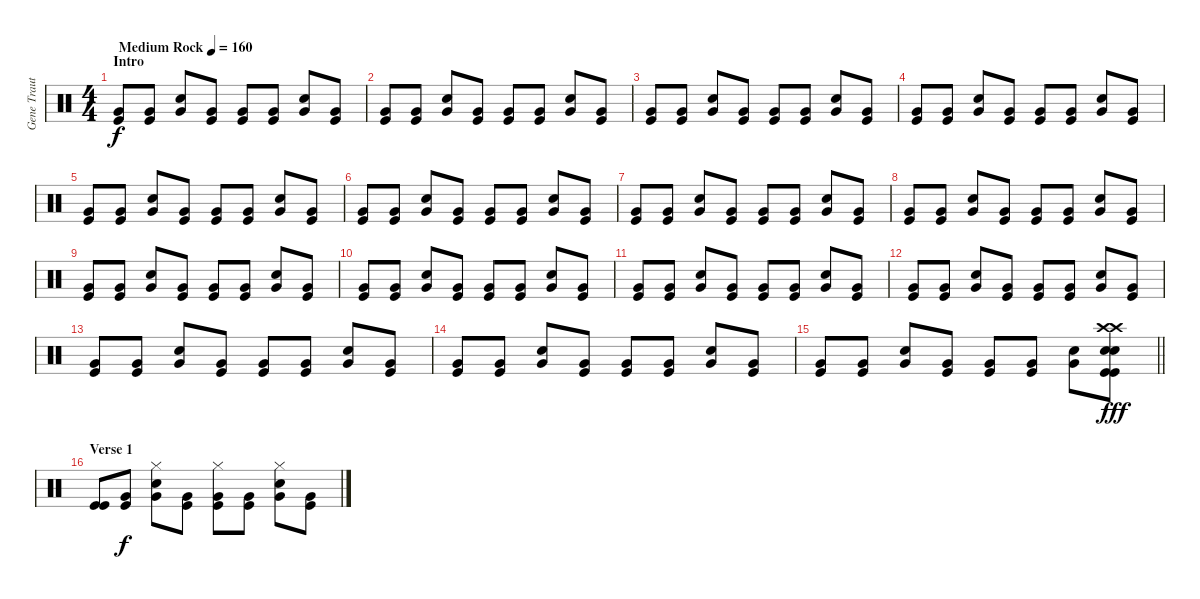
\track ("Gene Trautmann" "Gene Traut") {instrument percussion}
\staff {score}
\articulation defaults
\ts (4 4)
\section ("" "Intro")
\tempo (160 "Medium Rock")
\clef neutral
\ks c
("Very Low Tom (hit)" "Kick (hit)").8{dy f} ("Very Low Tom (hit)" "Kick (hit)").8 ("Very Low Tom (hit)" "Snare (hit) 2").8 ("Very Low Tom (hit)" "Kick (hit)").8 ("Very Low Tom (hit)" "Kick (hit)").8 ("Very Low Tom (hit)" "Kick (hit)").8 ("Very Low Tom (hit)" "Snare (hit) 2").8 ("Very Low Tom (hit)" "Kick (hit)").8 |
("Very Low Tom (hit)" "Kick (hit)").8 ("Very Low Tom (hit)" "Kick (hit)").8 ("Very Low Tom (hit)" "Snare (hit) 2").8 ("Very Low Tom (hit)" "Kick (hit)").8 ("Very Low Tom (hit)" "Kick (hit)").8 ("Very Low Tom (hit)" "Kick (hit)").8 ("Very Low Tom (hit)" "Snare (hit) 2").8 ("Very Low Tom (hit)" "Kick (hit)").8 |
("Very Low Tom (hit)" "Kick (hit)").8 ("Very Low Tom (hit)" "Kick (hit)").8 ("Very Low Tom (hit)" "Snare (hit) 2").8 ("Very Low Tom (hit)" "Kick (hit)").8 ("Very Low Tom (hit)" "Kick (hit)").8 ("Very Low Tom (hit)" "Kick (hit)").8 ("Very Low Tom (hit)" "Snare (hit) 2").8 ("Very Low Tom (hit)" "Kick (hit)").8 |
("Very Low Tom (hit)" "Kick (hit)").8 ("Very Low Tom (hit)" "Kick (hit)").8 ("Very Low Tom (hit)" "Snare (hit) 2").8 ("Very Low Tom (hit)" "Kick (hit)").8 ("Very Low Tom (hit)" "Kick (hit)").8 ("Very Low Tom (hit)" "Kick (hit)").8 ("Very Low Tom (hit)" "Snare (hit) 2").8 ("Very Low Tom (hit)" "Kick (hit)").8 |
("Very Low Tom (hit)" "Kick (hit)").8 ("Very Low Tom (hit)" "Kick (hit)").8 ("Very Low Tom (hit)" "Snare (hit) 2").8 ("Very Low Tom (hit)" "Kick (hit)").8 ("Very Low Tom (hit)" "Kick (hit)").8 ("Very Low Tom (hit)" "Kick (hit)").8 ("Very Low Tom (hit)" "Snare (hit) 2").8 ("Very Low Tom (hit)" "Kick (hit)").8 |
("Very Low Tom (hit)" "Kick (hit)").8 ("Very Low Tom (hit)" "Kick (hit)").8 ("Very Low Tom (hit)" "Snare (hit) 2").8 ("Very Low Tom (hit)" "Kick (hit)").8 ("Very Low Tom (hit)" "Kick (hit)").8 ("Very Low Tom (hit)" "Kick (hit)").8 ("Very Low Tom (hit)" "Snare (hit) 2").8 ("Very Low Tom (hit)" "Kick (hit)").8 |
("Very Low Tom (hit)" "Kick (hit)").8 ("Very Low Tom (hit)" "Kick (hit)").8 ("Very Low Tom (hit)" "Snare (hit) 2").8 ("Very Low Tom (hit)" "Kick (hit)").8 ("Very Low Tom (hit)" "Kick (hit)").8 ("Very Low Tom (hit)" "Kick (hit)").8 ("Very Low Tom (hit)" "Snare (hit) 2").8 ("Very Low Tom (hit)" "Kick (hit)").8 |
("Very Low Tom (hit)" "Kick (hit)").8 ("Very Low Tom (hit)" "Kick (hit)").8 ("Very Low Tom (hit)" "Snare (hit) 2").8 ("Very Low Tom (hit)" "Kick (hit)").8 ("Very Low Tom (hit)" "Kick (hit)").8 ("Very Low Tom (hit)" "Kick (hit)").8 ("Very Low Tom (hit)" "Snare (hit) 2").8 ("Very Low Tom (hit)" "Kick (hit)").8 |
("Very Low Tom (hit)" "Kick (hit)").8 ("Very Low Tom (hit)" "Kick (hit)").8 ("Very Low Tom (hit)" "Snare (hit) 2").8 ("Very Low Tom (hit)" "Kick (hit)").8 ("Very Low Tom (hit)" "Kick (hit)").8 ("Very Low Tom (hit)" "Kick (hit)").8 ("Very Low Tom (hit)" "Snare (hit) 2").8 ("Very Low Tom (hit)" "Kick (hit)").8 |
("Very Low Tom (hit)" "Kick (hit)").8 ("Very Low Tom (hit)" "Kick (hit)").8 ("Very Low Tom (hit)" "Snare (hit) 2").8 ("Very Low Tom (hit)" "Kick (hit)").8 ("Very Low Tom (hit)" "Kick (hit)").8 ("Very Low Tom (hit)" "Kick (hit)").8 ("Very Low Tom (hit)" "Snare (hit) 2").8 ("Very Low Tom (hit)" "Kick (hit)").8 |
("Very Low Tom (hit)" "Kick (hit)").8 ("Very Low Tom (hit)" "Kick (hit)").8 ("Very Low Tom (hit)" "Snare (hit) 2").8 ("Very Low Tom (hit)" "Kick (hit)").8 ("Very Low Tom (hit)" "Kick (hit)").8 ("Very Low Tom (hit)" "Kick (hit)").8 ("Very Low Tom (hit)" "Snare (hit) 2").8 ("Very Low Tom (hit)" "Kick (hit)").8 |
("Very Low Tom (hit)" "Kick (hit)").8 ("Very Low Tom (hit)" "Kick (hit)").8 ("Very Low Tom (hit)" "Snare (hit) 2").8 ("Very Low Tom (hit)" "Kick (hit)").8 ("Very Low Tom (hit)" "Kick (hit)").8 ("Very Low Tom (hit)" "Kick (hit)").8 ("Very Low Tom (hit)" "Snare (hit) 2").8 ("Very Low Tom (hit)" "Kick (hit)").8 |
("Very Low Tom (hit)" "Kick (hit)").8 ("Very Low Tom (hit)" "Kick (hit)").8 ("Very Low Tom (hit)" "Snare (hit) 2").8 ("Very Low Tom (hit)" "Kick (hit)").8 ("Very Low Tom (hit)" "Kick (hit)").8 ("Very Low Tom (hit)" "Kick (hit)").8 ("Very Low Tom (hit)" "Snare (hit) 2").8 ("Very Low Tom (hit)" "Kick (hit)").8 |
("Very Low Tom (hit)" "Kick (hit)").8 ("Very Low Tom (hit)" "Kick (hit)").8 ("Very Low Tom (hit)" "Snare (hit) 2").8 ("Very Low Tom (hit)" "Kick (hit)").8 ("Very Low Tom (hit)" "Kick (hit)").8 ("Very Low Tom (hit)" "Kick (hit)").8 ("Very Low Tom (hit)" "Snare (hit) 2").8 ("Very Low Tom (hit)" "Kick (hit)").8 |
\barLineRight lightlight
("Very Low Tom (hit)" "Kick (hit)").8 ("Very Low Tom (hit)" "Kick (hit)").8 ("Very Low Tom (hit)" "Snare (hit) 2").8 ("Very Low Tom (hit)" "Kick (hit)").8 ("Very Low Tom (hit)" "Kick (hit)").8 ("Very Low Tom (hit)" "Kick (hit)").8 ("Very Low Tom (hit)" "Snare (hit) 2").8 ("Kick (hit)" "Crash high (hit)" "Crash high (hit)" "Snare (hit) 2" "Snare (hit) 2" "Kick (hit)").8{dy fff} |
\section ("" "Verse 1")
("Kick (hit)" "Kick (hit)").8 ("Very Low Tom (hit)" "Kick (hit)").8{dy f} ("Very Low Tom (hit)" "Hi-Hat (closed)" "Snare (hit) 2").8 ("Very Low Tom (hit)" "Kick (hit)").8 ("Very Low Tom (hit)" "Hi-Hat (closed)" "Kick (hit)").8 ("Very Low Tom (hit)" "Kick (hit)").8 ("Very Low Tom (hit)" "Hi-Hat (closed)" "Snare (hit) 2").8 ("Very Low Tom (hit)" "Kick (hit)").8
